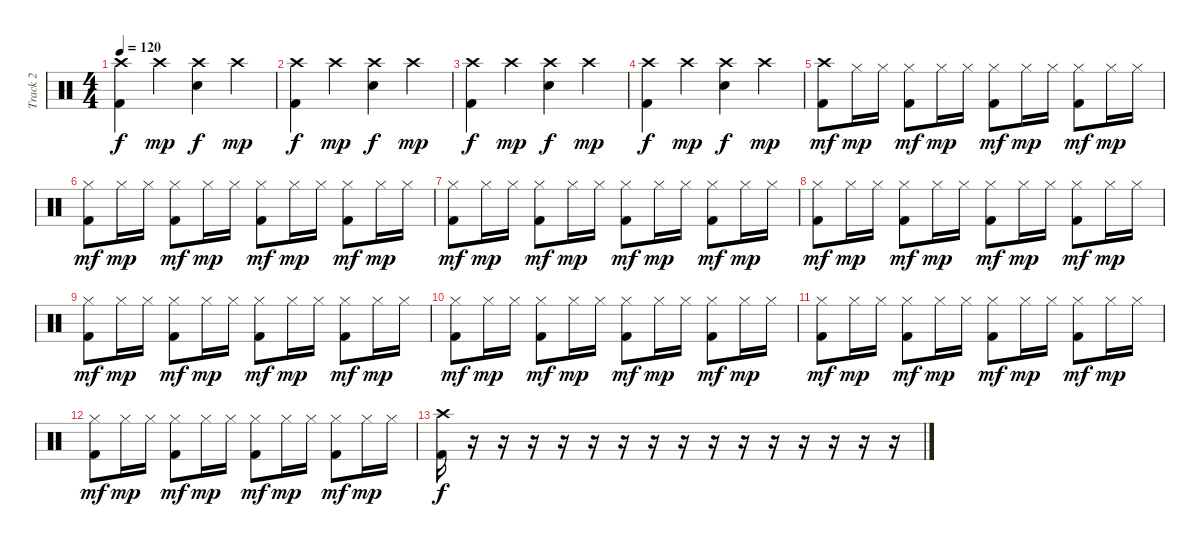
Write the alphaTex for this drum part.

\track ("Track 2" "Track 2") {instrument percussion}
\staff {score}
\articulation defaults
\ts (4 4)
\tempo 120
\clef neutral
\ks c
("Crash high (hit)" "Kick (hit) 2").4{dy f} "Crash high (hit)".4{dy mp} ("Crash high (hit)" "Electric Snare (hit)").4{dy f} "Crash high (hit)".4{dy mp} |
("Crash high (hit)" "Kick (hit) 2").4{dy f} "Crash high (hit)".4{dy mp} ("Crash high (hit)" "Electric Snare (hit)").4{dy f} "Crash high (hit)".4{dy mp} |
("Crash high (hit)" "Kick (hit) 2").4{dy f} "Crash high (hit)".4{dy mp} ("Crash high (hit)" "Electric Snare (hit)").4{dy f} "Crash high (hit)".4{dy mp} |
("Crash high (hit)" "Kick (hit) 2").4{dy f} "Crash high (hit)".4{dy mp} ("Crash high (hit)" "Electric Snare (hit)").4{dy f} "Crash high (hit)".4{dy mp} |
("Crash high (hit)" "Kick (hit) 2").8{dy mf} "Hi-Hat (closed)".16{dy mp} "Hi-Hat (closed)".16 ("Hi-Hat (closed)" "Kick (hit) 2").8{dy mf} "Hi-Hat (closed)".16{dy mp} "Hi-Hat (closed)".16 ("Hi-Hat (closed)" "Kick (hit) 2").8{dy mf} "Hi-Hat (closed)".16{dy mp} "Hi-Hat (closed)".16 ("Hi-Hat (closed)" "Kick (hit) 2").8{dy mf} "Hi-Hat (closed)".16{dy mp} "Hi-Hat (closed)".16 |
("Hi-Hat (closed)" "Kick (hit) 2").8{dy mf} "Hi-Hat (closed)".16{dy mp} "Hi-Hat (closed)".16 ("Hi-Hat (closed)" "Kick (hit) 2").8{dy mf} "Hi-Hat (closed)".16{dy mp} "Hi-Hat (closed)".16 ("Hi-Hat (closed)" "Kick (hit) 2").8{dy mf} "Hi-Hat (closed)".16{dy mp} "Hi-Hat (closed)".16 ("Hi-Hat (closed)" "Kick (hit) 2").8{dy mf} "Hi-Hat (closed)".16{dy mp} "Hi-Hat (closed)".16 |
("Hi-Hat (closed)" "Kick (hit) 2").8{dy mf} "Hi-Hat (closed)".16{dy mp} "Hi-Hat (closed)".16 ("Hi-Hat (closed)" "Kick (hit) 2").8{dy mf} "Hi-Hat (closed)".16{dy mp} "Hi-Hat (closed)".16 ("Hi-Hat (closed)" "Kick (hit) 2").8{dy mf} "Hi-Hat (closed)".16{dy mp} "Hi-Hat (closed)".16 ("Hi-Hat (closed)" "Kick (hit) 2").8{dy mf} "Hi-Hat (closed)".16{dy mp} "Hi-Hat (closed)".16 |
("Hi-Hat (closed)" "Kick (hit) 2").8{dy mf} "Hi-Hat (closed)".16{dy mp} "Hi-Hat (closed)".16 ("Hi-Hat (closed)" "Kick (hit) 2").8{dy mf} "Hi-Hat (closed)".16{dy mp} "Hi-Hat (closed)".16 ("Hi-Hat (closed)" "Kick (hit) 2").8{dy mf} "Hi-Hat (closed)".16{dy mp} "Hi-Hat (closed)".16 ("Hi-Hat (closed)" "Kick (hit) 2").8{dy mf} "Hi-Hat (closed)".16{dy mp} "Hi-Hat (closed)".16 |
("Hi-Hat (closed)" "Kick (hit) 2").8{dy mf} "Hi-Hat (closed)".16{dy mp} "Hi-Hat (closed)".16 ("Hi-Hat (closed)" "Kick (hit) 2").8{dy mf} "Hi-Hat (closed)".16{dy mp} "Hi-Hat (closed)".16 ("Hi-Hat (closed)" "Kick (hit) 2").8{dy mf} "Hi-Hat (closed)".16{dy mp} "Hi-Hat (closed)".16 ("Hi-Hat (closed)" "Kick (hit) 2").8{dy mf} "Hi-Hat (closed)".16{dy mp} "Hi-Hat (closed)".16 |
("Hi-Hat (closed)" "Kick (hit) 2").8{dy mf} "Hi-Hat (closed)".16{dy mp} "Hi-Hat (closed)".16 ("Hi-Hat (closed)" "Kick (hit) 2").8{dy mf} "Hi-Hat (closed)".16{dy mp} "Hi-Hat (closed)".16 ("Hi-Hat (closed)" "Kick (hit) 2").8{dy mf} "Hi-Hat (closed)".16{dy mp} "Hi-Hat (closed)".16 ("Hi-Hat (closed)" "Kick (hit) 2").8{dy mf} "Hi-Hat (closed)".16{dy mp} "Hi-Hat (closed)".16 |
("Hi-Hat (closed)" "Kick (hit) 2").8{dy mf} "Hi-Hat (closed)".16{dy mp} "Hi-Hat (closed)".16 ("Hi-Hat (closed)" "Kick (hit) 2").8{dy mf} "Hi-Hat (closed)".16{dy mp} "Hi-Hat (closed)".16 ("Hi-Hat (closed)" "Kick (hit) 2").8{dy mf} "Hi-Hat (closed)".16{dy mp} "Hi-Hat (closed)".16 ("Hi-Hat (closed)" "Kick (hit) 2").8{dy mf} "Hi-Hat (closed)".16{dy mp} "Hi-Hat (closed)".16 |
("Hi-Hat (closed)" "Kick (hit) 2").8{dy mf} "Hi-Hat (closed)".16{dy mp} "Hi-Hat (closed)".16 ("Hi-Hat (closed)" "Kick (hit) 2").8{dy mf} "Hi-Hat (closed)".16{dy mp} "Hi-Hat (closed)".16 ("Hi-Hat (closed)" "Kick (hit) 2").8{dy mf} "Hi-Hat (closed)".16{dy mp} "Hi-Hat (closed)".16 ("Hi-Hat (closed)" "Kick (hit) 2").8{dy mf} "Hi-Hat (closed)".16{dy mp} "Hi-Hat (closed)".16 |
("Crash high (hit)" "Kick (hit) 2").16{dy f} r.16 r.16 r.16 r.16 r.16 r.16 r.16 r.16 r.16 r.16 r.16 r.16 r.16 r.16 r.16
